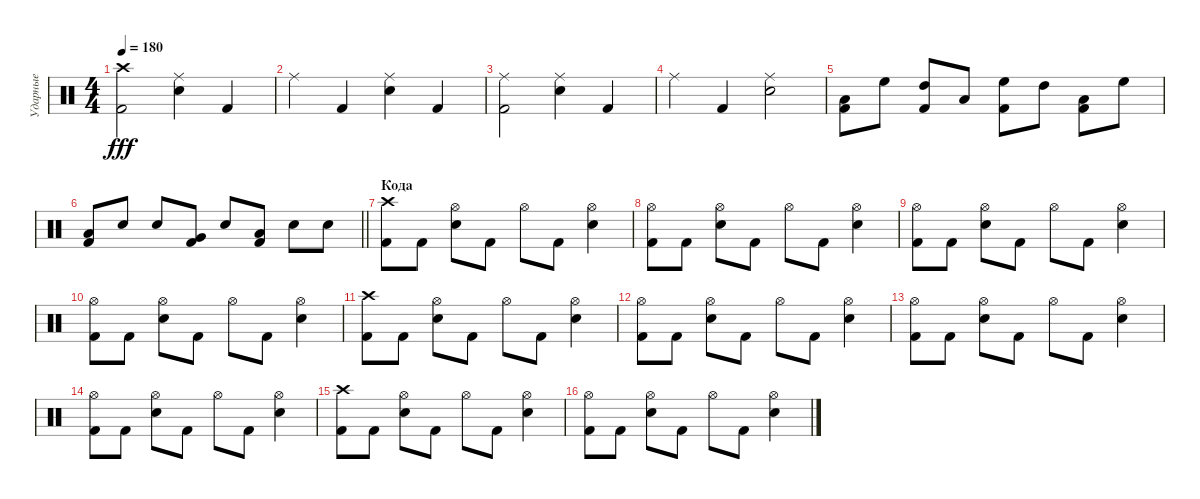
\track ("Ударные" "Ударные") {instrument percussion}
\staff {score}
\articulation defaults
\ts (4 4)
\tempo 180
\clef neutral
\ks c
("Crash high (hit)" "Kick (hit) 2").2{dy fff} ("Ride (middle)" "Snare (hit) 2").4 "Kick (hit) 2".4 |
"Ride (middle)".4 "Kick (hit) 2".4 ("Ride (middle)" "Snare (hit) 2").4 "Kick (hit) 2".4 |
("Ride (middle)" "Kick (hit) 2").2 ("Ride (middle)" "Snare (hit) 2").4 "Kick (hit) 2".4 |
"Ride (middle)".4 "Kick (hit) 2".4 ("Ride (middle)" "Snare (hit) 2").2 |
("Low Floor Tom (hit)" "Kick (hit) 2").8 "High Floor Tom (hit)".8 ("High Tom (hit)" "Kick (hit) 2").8 "Low Tom (hit)".8 ("High Floor Tom (hit)" "Kick (hit) 2").8 "High Tom (hit)".8 ("Low Tom (hit)" "Kick (hit) 2").8 "High Floor Tom (hit)".8 |
\barLineRight lightlight
("Low Tom (hit)" "Kick (hit) 2").8 "Snare (hit) 2".8 "Snare (hit) 2".8 ("Very Low Tom (hit)" "Kick (hit) 2").8 "Snare (hit) 2".8 ("Low Floor Tom (hit)" "Kick (hit) 2").8 "Snare (hit) 2".8 "Snare (hit) 2".8 |
\section ("" "Кода")
("Crash high (hit)" "Kick (hit) 2").8 "Kick (hit) 2".8 ("Hi-Hat (open)" "Snare (hit) 2").8 "Kick (hit) 2".8 "Hi-Hat (open)".8 "Kick (hit) 2".8 ("Hi-Hat (open)" "Snare (hit) 2").4 |
("Hi-Hat (open)" "Kick (hit) 2").8 "Kick (hit) 2".8 ("Hi-Hat (open)" "Snare (hit) 2").8 "Kick (hit) 2".8 "Hi-Hat (open)".8 "Kick (hit) 2".8 ("Hi-Hat (open)" "Snare (hit) 2").4 |
("Hi-Hat (open)" "Kick (hit) 2").8 "Kick (hit) 2".8 ("Hi-Hat (open)" "Snare (hit) 2").8 "Kick (hit) 2".8 "Hi-Hat (open)".8 "Kick (hit) 2".8 ("Hi-Hat (open)" "Snare (hit) 2").4 |
("Hi-Hat (open)" "Kick (hit) 2").8 "Kick (hit) 2".8 ("Hi-Hat (open)" "Snare (hit) 2").8 "Kick (hit) 2".8 "Hi-Hat (open)".8 "Kick (hit) 2".8 ("Hi-Hat (open)" "Snare (hit) 2").4 |
("Crash high (hit)" "Kick (hit) 2").8 "Kick (hit) 2".8 ("Hi-Hat (open)" "Snare (hit) 2").8 "Kick (hit) 2".8 "Hi-Hat (open)".8 "Kick (hit) 2".8 ("Hi-Hat (open)" "Snare (hit) 2").4 |
("Hi-Hat (open)" "Kick (hit) 2").8 "Kick (hit) 2".8 ("Hi-Hat (open)" "Snare (hit) 2").8 "Kick (hit) 2".8 "Hi-Hat (open)".8 "Kick (hit) 2".8 ("Hi-Hat (open)" "Snare (hit) 2").4 |
("Hi-Hat (open)" "Kick (hit) 2").8 "Kick (hit) 2".8 ("Hi-Hat (open)" "Snare (hit) 2").8 "Kick (hit) 2".8 "Hi-Hat (open)".8 "Kick (hit) 2".8 ("Hi-Hat (open)" "Snare (hit) 2").4 |
("Hi-Hat (open)" "Kick (hit) 2").8 "Kick (hit) 2".8 ("Hi-Hat (open)" "Snare (hit) 2").8 "Kick (hit) 2".8 "Hi-Hat (open)".8 "Kick (hit) 2".8 ("Hi-Hat (open)" "Snare (hit) 2").4 |
("Crash high (hit)" "Kick (hit) 2").8 "Kick (hit) 2".8 ("Hi-Hat (open)" "Snare (hit) 2").8 "Kick (hit) 2".8 "Hi-Hat (open)".8 "Kick (hit) 2".8 ("Hi-Hat (open)" "Snare (hit) 2").4 |
("Hi-Hat (open)" "Kick (hit) 2").8 "Kick (hit) 2".8 ("Hi-Hat (open)" "Snare (hit) 2").8 "Kick (hit) 2".8 "Hi-Hat (open)".8 "Kick (hit) 2".8 ("Hi-Hat (open)" "Snare (hit) 2").4
